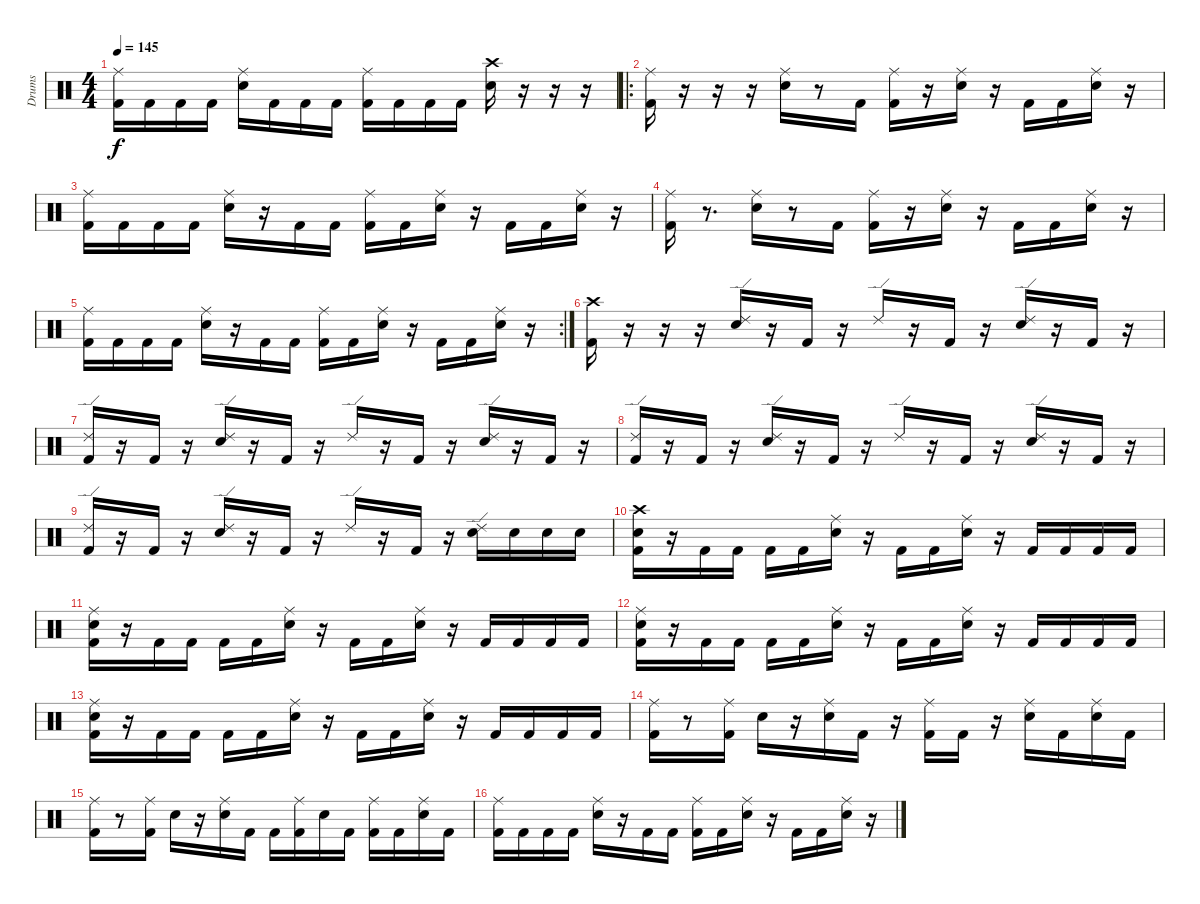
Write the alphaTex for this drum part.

\track ("Drums" "Drums") {instrument percussion}
\staff {score}
\articulation defaults
\ts (4 4)
\tempo 145
\clef neutral
\ks c
("Ride (middle)" "Kick (hit) 2").16{dy f} "Kick (hit) 2".16 "Kick (hit) 2".16 "Kick (hit) 2".16 ("Ride (middle)" "Electric Snare (hit)").16 "Kick (hit) 2".16 "Kick (hit) 2".16 "Kick (hit) 2".16 ("Ride (middle)" "Kick (hit) 2").16 "Kick (hit) 2".16 "Kick (hit) 2".16 "Kick (hit) 2".16 ("Crash high (hit)" "Electric Snare (hit)").16 r.16 r.16 r.16 |
\ro
("Ride (middle)" "Kick (hit) 2").16 r.16 r.16 r.16 ("Ride (middle)" "Electric Snare (hit)").16 r.8 "Kick (hit) 2".16 ("Ride (middle)" "Kick (hit) 2").16 r.16 ("Ride (middle)" "Electric Snare (hit)").16 r.16 "Kick (hit) 2".16 "Kick (hit) 2".16 ("Ride (middle)" "Electric Snare (hit)").16 r.16 |
("Ride (middle)" "Kick (hit) 2").16 "Kick (hit) 2".16 "Kick (hit) 2".16 "Kick (hit) 2".16 ("Ride (middle)" "Electric Snare (hit)").16 r.16 "Kick (hit) 2".16 "Kick (hit) 2".16 ("Ride (middle)" "Kick (hit) 2").16 "Kick (hit) 2".16 ("Ride (middle)" "Electric Snare (hit)").16 r.16 "Kick (hit) 2".16 "Kick (hit) 2".16 ("Ride (middle)" "Electric Snare (hit)").16 r.16 |
("Ride (middle)" "Kick (hit) 2").16 r.8{d} ("Ride (middle)" "Electric Snare (hit)").16 r.8 "Kick (hit) 2".16 ("Ride (middle)" "Kick (hit) 2").16 r.16 ("Ride (middle)" "Electric Snare (hit)").16 r.16 "Kick (hit) 2".16 "Kick (hit) 2".16 ("Ride (middle)" "Electric Snare (hit)").16 r.16 |
\rc 2
("Ride (middle)" "Kick (hit) 2").16 "Kick (hit) 2".16 "Kick (hit) 2".16 "Kick (hit) 2".16 ("Ride (middle)" "Electric Snare (hit)").16 r.16 "Kick (hit) 2".16 "Kick (hit) 2".16 ("Ride (middle)" "Kick (hit) 2").16 "Kick (hit) 2".16 ("Ride (middle)" "Electric Snare (hit)").16 r.16 "Kick (hit) 2".16 "Kick (hit) 2".16 ("Ride (middle)" "Electric Snare (hit)").16 r.16 |
("Crash high (hit)" "Kick (hit) 2").16 r.16 r.16 r.16 ("Ride (edge) 2" "Electric Snare (hit)").16 r.16 "Kick (hit) 2".16 r.16 "Ride (edge) 2".16 r.16 "Kick (hit) 2".16 r.16 ("Ride (edge) 2" "Electric Snare (hit)").16 r.16 "Kick (hit) 2".16 r.16 |
("Ride (edge) 2" "Kick (hit) 2").16 r.16 "Kick (hit) 2".16 r.16 ("Ride (edge) 2" "Electric Snare (hit)").16 r.16 "Kick (hit) 2".16 r.16 "Ride (edge) 2".16 r.16 "Kick (hit) 2".16 r.16 ("Ride (edge) 2" "Electric Snare (hit)").16 r.16 "Kick (hit) 2".16 r.16 |
("Ride (edge) 2" "Kick (hit) 2").16 r.16 "Kick (hit) 2".16 r.16 ("Ride (edge) 2" "Electric Snare (hit)").16 r.16 "Kick (hit) 2".16 r.16 "Ride (edge) 2".16 r.16 "Kick (hit) 2".16 r.16 ("Ride (edge) 2" "Electric Snare (hit)").16 r.16 "Kick (hit) 2".16 r.16 |
("Ride (edge) 2" "Kick (hit) 2").16 r.16 "Kick (hit) 2".16 r.16 ("Ride (edge) 2" "Electric Snare (hit)").16 r.16 "Kick (hit) 2".16 r.16 "Ride (edge) 2".16 r.16 "Kick (hit) 2".16 r.16 ("Ride (edge) 2" "Electric Snare (hit)").16 "Electric Snare (hit)".16 "Electric Snare (hit)".16 "Electric Snare (hit)".16 |
("Crash high (hit)" "Electric Snare (hit)" "Kick (hit) 2").16 r.16 "Kick (hit) 2".16 "Kick (hit) 2".16 "Kick (hit) 2".16 "Kick (hit) 2".16 ("Ride (middle)" "Electric Snare (hit)").16 r.16 "Kick (hit) 2".16 "Kick (hit) 2".16 ("Ride (middle)" "Electric Snare (hit)").16 r.16 "Kick (hit) 2".16 "Kick (hit) 2".16 "Kick (hit) 2".16 "Kick (hit) 2".16 |
("Ride (middle)" "Electric Snare (hit)" "Kick (hit) 2").16 r.16 "Kick (hit) 2".16 "Kick (hit) 2".16 "Kick (hit) 2".16 "Kick (hit) 2".16 ("Ride (middle)" "Electric Snare (hit)").16 r.16 "Kick (hit) 2".16 "Kick (hit) 2".16 ("Ride (middle)" "Electric Snare (hit)").16 r.16 "Kick (hit) 2".16 "Kick (hit) 2".16 "Kick (hit) 2".16 "Kick (hit) 2".16 |
("Ride (middle)" "Electric Snare (hit)" "Kick (hit) 2").16 r.16 "Kick (hit) 2".16 "Kick (hit) 2".16 "Kick (hit) 2".16 "Kick (hit) 2".16 ("Ride (middle)" "Electric Snare (hit)").16 r.16 "Kick (hit) 2".16 "Kick (hit) 2".16 ("Ride (middle)" "Electric Snare (hit)").16 r.16 "Kick (hit) 2".16 "Kick (hit) 2".16 "Kick (hit) 2".16 "Kick (hit) 2".16 |
("Ride (middle)" "Electric Snare (hit)" "Kick (hit) 2").16 r.16 "Kick (hit) 2".16 "Kick (hit) 2".16 "Kick (hit) 2".16 "Kick (hit) 2".16 ("Ride (middle)" "Electric Snare (hit)").16 r.16 "Kick (hit) 2".16 "Kick (hit) 2".16 ("Ride (middle)" "Electric Snare (hit)").16 r.16 "Kick (hit) 2".16 "Kick (hit) 2".16 "Kick (hit) 2".16 "Kick (hit) 2".16 |
("Ride (middle)" "Kick (hit) 2").16 r.8 ("Ride (middle)" "Kick (hit) 2").16 "Electric Snare (hit)".16 r.16 ("Ride (middle)" "Electric Snare (hit)").16 "Kick (hit) 2".16 r.16 ("Ride (middle)" "Kick (hit) 2").16 "Kick (hit) 2".16 r.16 ("Ride (middle)" "Electric Snare (hit)").16 "Kick (hit) 2".16 ("Ride (middle)" "Electric Snare (hit)").16 "Kick (hit) 2".16 |
("Ride (middle)" "Kick (hit) 2").16 r.8 ("Ride (middle)" "Kick (hit) 2").16 "Electric Snare (hit)".16 r.16 ("Ride (middle)" "Electric Snare (hit)").16 "Kick (hit) 2".16 "Kick (hit) 2".16 ("Ride (middle)" "Kick (hit) 2").16 "Electric Snare (hit)".16 "Kick (hit) 2".16 ("Ride (middle)" "Kick (hit) 2").16 "Kick (hit) 2".16 ("Ride (middle)" "Electric Snare (hit)").16 "Kick (hit) 2".16 |
("Ride (middle)" "Kick (hit) 2").16 "Kick (hit) 2".16 "Kick (hit) 2".16 "Kick (hit) 2".16 ("Ride (middle)" "Electric Snare (hit)").16 r.16 "Kick (hit) 2".16 "Kick (hit) 2".16 ("Ride (middle)" "Kick (hit) 2").16 "Kick (hit) 2".16 ("Ride (middle)" "Electric Snare (hit)").16 r.16 "Kick (hit) 2".16 "Kick (hit) 2".16 ("Ride (middle)" "Electric Snare (hit)").16 r.16
